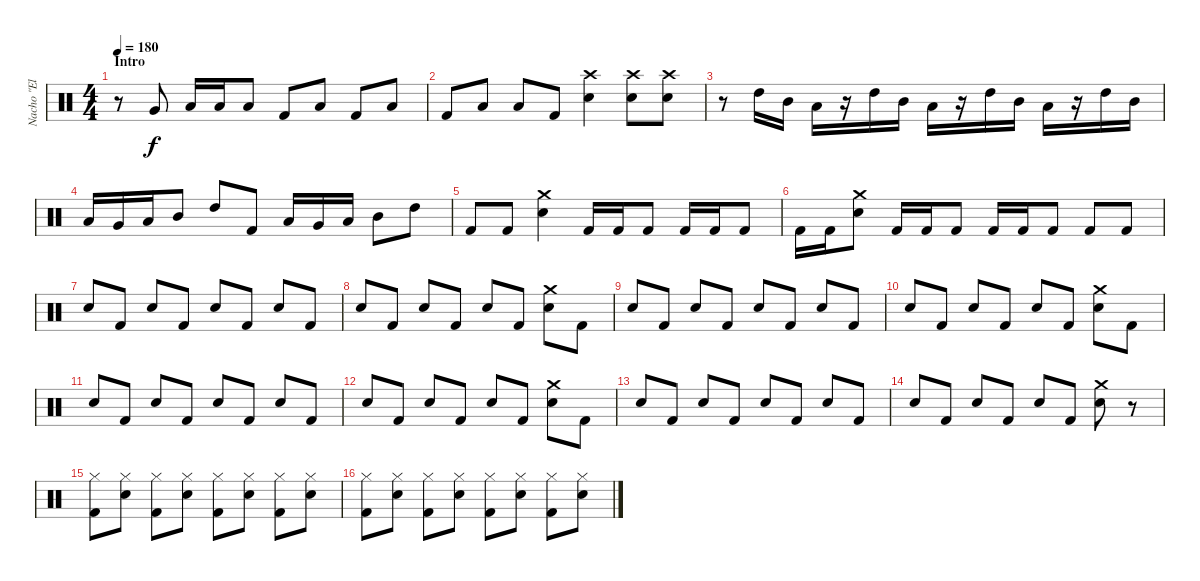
\track ("Nacho \"El Implacable\"Gonzales" "Nacho \"El ") {instrument percussion}
\staff {score}
\articulation defaults
\ts (4 4)
\section ("" "Intro")
\tempo 180
\clef neutral
\ks c
r.8{dy f} "Very Low Tom (hit)".8 "Low Tom (hit)".16 "Low Tom (hit)".16 "Low Tom (hit)".8 "Kick (hit) 2".8 "Low Tom (hit)".8 "Kick (hit) 2".8 "Low Tom (hit)".8 |
"Kick (hit) 2".8 "Low Tom (hit)".8 "Low Tom (hit)".8 "Kick (hit) 2".8 ("Crash high (hit)" "Electric Snare (hit)").4 ("Crash high (hit)" "Electric Snare (hit)").8 ("Crash high (hit)" "Electric Snare (hit)").8 |
r.8 "High Tom (hit)".16 "Mid Tom (hit)".16 "Low Tom (hit)".16 r.16 "High Tom (hit)".16 "Mid Tom (hit)".16 "Low Tom (hit)".16 r.16 "High Tom (hit)".16 "Mid Tom (hit)".16 "Low Tom (hit)".16 r.16 "High Tom (hit)".16 "Mid Tom (hit)".16 |
"Low Tom (hit)".16 "Very Low Tom (hit)".16 "Low Tom (hit)".16 "Mid Tom (hit)".8 "High Tom (hit)".8 "Kick (hit) 2".8 "Low Tom (hit)".16 "Very Low Tom (hit)".16 "Low Tom (hit)".16 "Mid Tom (hit)".8 "High Tom (hit)".8 |
"Kick (hit) 2".8 "Kick (hit) 2".8 ("Crash medium (hit)" "Electric Snare (hit)").4 "Kick (hit) 2".16 "Kick (hit) 2".16 "Kick (hit) 2".8 "Kick (hit) 2".16 "Kick (hit) 2".16 "Kick (hit) 2".8 |
"Kick (hit) 2".16 "Kick (hit) 2".16 ("Crash medium (hit)" "Electric Snare (hit)").8 "Kick (hit) 2".16 "Kick (hit) 2".16 "Kick (hit) 2".8 "Kick (hit) 2".16 "Kick (hit) 2".16 "Kick (hit) 2".8 "Kick (hit) 2".8 "Kick (hit) 2".8 |
"Electric Snare (hit)".8 "Kick (hit) 2".8 "Electric Snare (hit)".8 "Kick (hit) 2".8 "Electric Snare (hit)".8 "Kick (hit) 2".8 "Electric Snare (hit)".8 "Kick (hit) 2".8 |
"Electric Snare (hit)".8 "Kick (hit) 2".8 "Electric Snare (hit)".8 "Kick (hit) 2".8 "Electric Snare (hit)".8 "Kick (hit) 2".8 ("Crash medium (hit)" "Electric Snare (hit)").8 "Kick (hit) 2".8 |
"Electric Snare (hit)".8 "Kick (hit) 2".8 "Electric Snare (hit)".8 "Kick (hit) 2".8 "Electric Snare (hit)".8 "Kick (hit) 2".8 "Electric Snare (hit)".8 "Kick (hit) 2".8 |
"Electric Snare (hit)".8 "Kick (hit) 2".8 "Electric Snare (hit)".8 "Kick (hit) 2".8 "Electric Snare (hit)".8 "Kick (hit) 2".8 ("Crash medium (hit)" "Electric Snare (hit)").8 "Kick (hit) 2".8 |
"Electric Snare (hit)".8 "Kick (hit) 2".8 "Electric Snare (hit)".8 "Kick (hit) 2".8 "Electric Snare (hit)".8 "Kick (hit) 2".8 "Electric Snare (hit)".8 "Kick (hit) 2".8 |
"Electric Snare (hit)".8 "Kick (hit) 2".8 "Electric Snare (hit)".8 "Kick (hit) 2".8 "Electric Snare (hit)".8 "Kick (hit) 2".8 ("Crash medium (hit)" "Electric Snare (hit)").8 "Kick (hit) 2".8 |
"Electric Snare (hit)".8 "Kick (hit) 2".8 "Electric Snare (hit)".8 "Kick (hit) 2".8 "Electric Snare (hit)".8 "Kick (hit) 2".8 "Electric Snare (hit)".8 "Kick (hit) 2".8 |
"Electric Snare (hit)".8 "Kick (hit) 2".8 "Electric Snare (hit)".8 "Kick (hit) 2".8 "Electric Snare (hit)".8 "Kick (hit) 2".8 ("Crash medium (hit)" "Electric Snare (hit)").8 r.8 |
("Hi-Hat (closed)" "Kick (hit) 2").8 ("Hi-Hat (closed)" "Electric Snare (hit)").8 ("Hi-Hat (closed)" "Kick (hit) 2").8 ("Hi-Hat (closed)" "Electric Snare (hit)").8 ("Hi-Hat (closed)" "Kick (hit) 2").8 ("Hi-Hat (closed)" "Electric Snare (hit)").8 ("Hi-Hat (closed)" "Kick (hit) 2").8 ("Hi-Hat (closed)" "Electric Snare (hit)").8 |
("Hi-Hat (closed)" "Kick (hit) 2").8 ("Hi-Hat (closed)" "Electric Snare (hit)").8 ("Hi-Hat (closed)" "Kick (hit) 2").8 ("Hi-Hat (closed)" "Electric Snare (hit)").8 ("Hi-Hat (closed)" "Kick (hit) 2").8 ("Hi-Hat (closed)" "Electric Snare (hit)").8 ("Hi-Hat (closed)" "Kick (hit) 2").8 ("Hi-Hat (closed)" "Electric Snare (hit)").8
